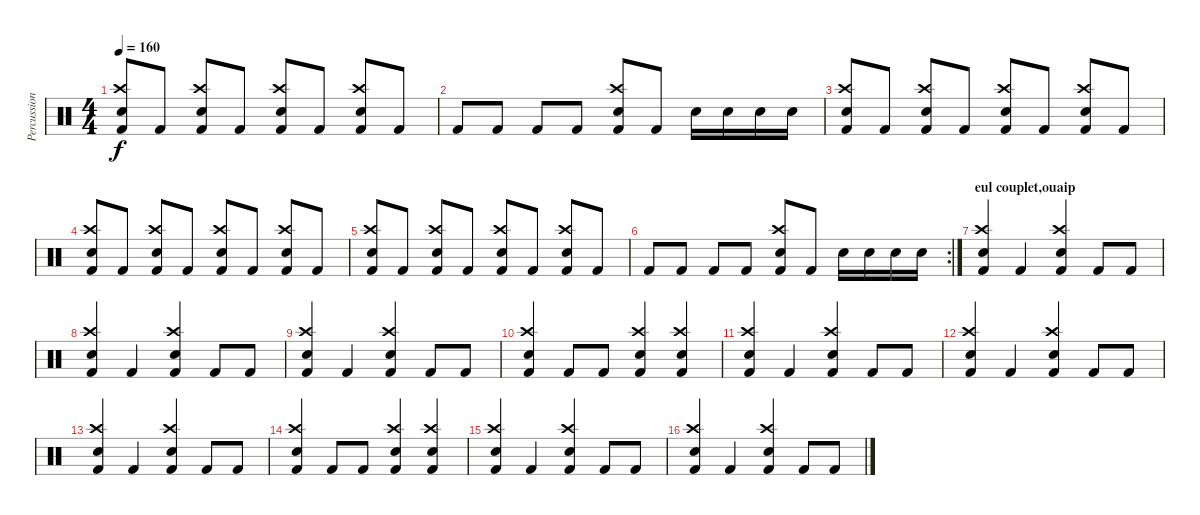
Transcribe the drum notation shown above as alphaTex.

\track ("Percussions" "Percussion") {instrument percussion}
\staff {score}
\articulation defaults
\ts (4 4)
\tempo 160
\clef neutral
\ks c
("Electric Snare (hit)" "Crash high (hit)" "Kick (hit) 2").8{dy f} "Kick (hit) 2".8 ("Electric Snare (hit)" "Crash high (hit)" "Kick (hit) 2").8 "Kick (hit) 2".8 ("Electric Snare (hit)" "Crash high (hit)" "Kick (hit) 2").8 "Kick (hit) 2".8 ("Electric Snare (hit)" "Crash high (hit)" "Kick (hit) 2").8 "Kick (hit) 2".8 |
"Kick (hit) 2".8 "Kick (hit) 2".8 "Kick (hit) 2".8 "Kick (hit) 2".8 ("Crash high (hit)" "Kick (hit) 2" "Electric Snare (hit)").8 "Kick (hit) 2".8 "Electric Snare (hit)".16 "Electric Snare (hit)".16 "Electric Snare (hit)".16 "Electric Snare (hit)".16 |
("Electric Snare (hit)" "Crash high (hit)" "Kick (hit) 2").8 "Kick (hit) 2".8 ("Electric Snare (hit)" "Crash high (hit)" "Kick (hit) 2").8 "Kick (hit) 2".8 ("Electric Snare (hit)" "Crash high (hit)" "Kick (hit) 2").8 "Kick (hit) 2".8 ("Electric Snare (hit)" "Crash high (hit)" "Kick (hit) 2").8 "Kick (hit) 2".8 |
("Electric Snare (hit)" "Crash high (hit)" "Kick (hit) 2").8 "Kick (hit) 2".8 ("Electric Snare (hit)" "Crash high (hit)" "Kick (hit) 2").8 "Kick (hit) 2".8 ("Electric Snare (hit)" "Crash high (hit)" "Kick (hit) 2").8 "Kick (hit) 2".8 ("Electric Snare (hit)" "Crash high (hit)" "Kick (hit) 2").8 "Kick (hit) 2".8 |
("Electric Snare (hit)" "Crash high (hit)" "Kick (hit) 2").8 "Kick (hit) 2".8 ("Electric Snare (hit)" "Crash high (hit)" "Kick (hit) 2").8 "Kick (hit) 2".8 ("Electric Snare (hit)" "Crash high (hit)" "Kick (hit) 2").8 "Kick (hit) 2".8 ("Electric Snare (hit)" "Crash high (hit)" "Kick (hit) 2").8 "Kick (hit) 2".8 |
\rc 2 "Kick (hit) 2".8 "Kick (hit) 2".8 "Kick (hit) 2".8 "Kick (hit) 2".8
("Crash high (hit)" "Kick (hit) 2" "Electric Snare (hit)").8 "Kick (hit) 2".8 "Electric Snare (hit)".16 "Electric Snare (hit)".16 "Electric Snare (hit)".16 "Electric Snare (hit)".16 |
\section ("" "eul couplet,ouaip")
("Kick (hit) 2" "Crash high (hit)" "Electric Snare (hit)").4 "Kick (hit) 2".4 ("Kick (hit) 2" "Crash high (hit)" "Electric Snare (hit)").4 "Kick (hit) 2".8 "Kick (hit) 2".8 |
("Kick (hit) 2" "Crash high (hit)" "Electric Snare (hit)").4 "Kick (hit) 2".4 ("Kick (hit) 2" "Crash high (hit)" "Electric Snare (hit)").4 "Kick (hit) 2".8 "Kick (hit) 2".8 |
("Kick (hit) 2" "Crash high (hit)" "Electric Snare (hit)").4 "Kick (hit) 2".4 ("Kick (hit) 2" "Crash high (hit)" "Electric Snare (hit)").4 "Kick (hit) 2".8 "Kick (hit) 2".8 |
("Electric Snare (hit)" "Kick (hit) 2" "Crash high (hit)").4 "Kick (hit) 2".8 "Kick (hit) 2".8 ("Kick (hit) 2" "Crash high (hit)" "Electric Snare (hit)").4 ("Kick (hit) 2" "Crash high (hit)" "Electric Snare (hit)").4 |
("Kick (hit) 2" "Crash high (hit)" "Electric Snare (hit)").4 "Kick (hit) 2".4 ("Kick (hit) 2" "Crash high (hit)" "Electric Snare (hit)").4 "Kick (hit) 2".8 "Kick (hit) 2".8 |
("Kick (hit) 2" "Crash high (hit)" "Electric Snare (hit)").4 "Kick (hit) 2".4 ("Kick (hit) 2" "Crash high (hit)" "Electric Snare (hit)").4 "Kick (hit) 2".8 "Kick (hit) 2".8 |
("Kick (hit) 2" "Crash high (hit)" "Electric Snare (hit)").4 "Kick (hit) 2".4 ("Kick (hit) 2" "Crash high (hit)" "Electric Snare (hit)").4 "Kick (hit) 2".8 "Kick (hit) 2".8 |
("Electric Snare (hit)" "Kick (hit) 2" "Crash high (hit)").4 "Kick (hit) 2".8 "Kick (hit) 2".8 ("Kick (hit) 2" "Crash high (hit)" "Electric Snare (hit)").4 ("Kick (hit) 2" "Crash high (hit)" "Electric Snare (hit)").4 |
("Kick (hit) 2" "Crash high (hit)" "Electric Snare (hit)").4 "Kick (hit) 2".4 ("Kick (hit) 2" "Crash high (hit)" "Electric Snare (hit)").4 "Kick (hit) 2".8 "Kick (hit) 2".8 |
("Kick (hit) 2" "Crash high (hit)" "Electric Snare (hit)").4 "Kick (hit) 2".4 ("Kick (hit) 2" "Crash high (hit)" "Electric Snare (hit)").4 "Kick (hit) 2".8 "Kick (hit) 2".8
